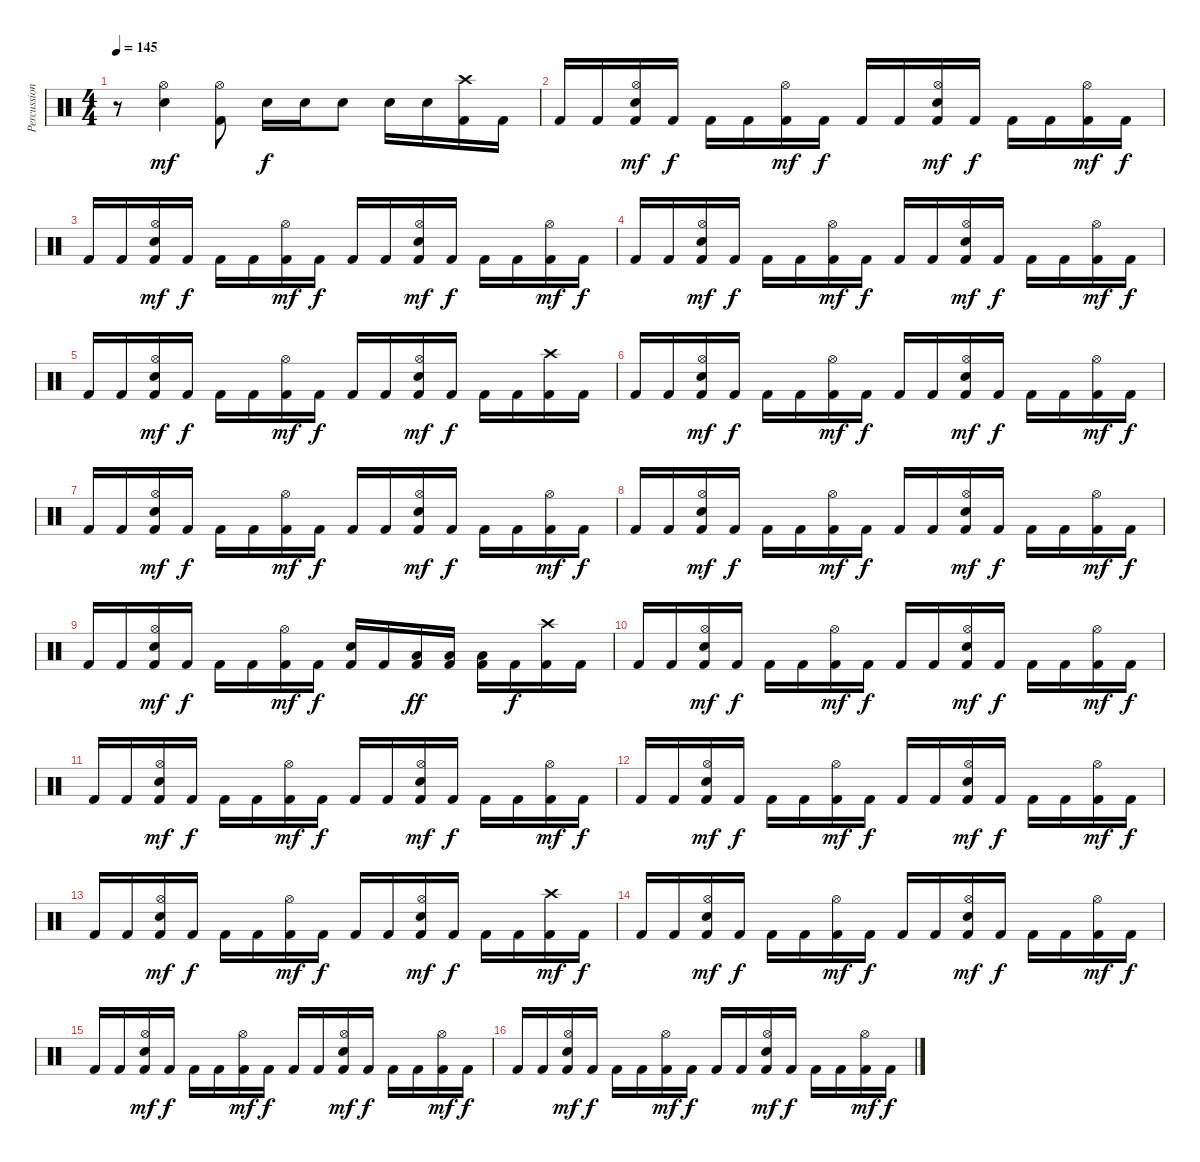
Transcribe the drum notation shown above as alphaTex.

\track ("Percussioni" "Percussion") {instrument percussion}
\staff {score}
\articulation defaults
\ts (4 4)
\tempo 145
\clef neutral
\ks c
r.8{dy mf} ("Snare (hit) 2" "Hi-Hat (open)").4 ("Kick (hit) 2" "Hi-Hat (open)").8 "Snare (hit) 2".16{dy f} "Snare (hit) 2".16 "Snare (hit) 2".8 "Snare (hit) 2".16 "Snare (hit) 2".16 ("Kick (hit) 2" "Crash high (hit)").16 "Kick (hit) 2".16 |
"Kick (hit) 2".16 "Kick (hit) 2".16 ("Kick (hit) 2" "Snare (hit) 2" "Hi-Hat (open)").16{dy mf} "Kick (hit) 2".16{dy f} "Kick (hit) 2".16 "Kick (hit) 2".16 ("Kick (hit) 2" "Hi-Hat (open)").16{dy mf} "Kick (hit) 2".16{dy f} "Kick (hit) 2".16 "Kick (hit) 2".16 ("Kick (hit) 2" "Snare (hit) 2" "Hi-Hat (open)").16{dy mf} "Kick (hit) 2".16{dy f} "Kick (hit) 2".16 "Kick (hit) 2".16 ("Kick (hit) 2" "Hi-Hat (open)").16{dy mf} "Kick (hit) 2".16{dy f} |
"Kick (hit) 2".16 "Kick (hit) 2".16 ("Kick (hit) 2" "Snare (hit) 2" "Hi-Hat (open)").16{dy mf} "Kick (hit) 2".16{dy f} "Kick (hit) 2".16 "Kick (hit) 2".16 ("Kick (hit) 2" "Hi-Hat (open)").16{dy mf} "Kick (hit) 2".16{dy f} "Kick (hit) 2".16 "Kick (hit) 2".16 ("Kick (hit) 2" "Snare (hit) 2" "Hi-Hat (open)").16{dy mf} "Kick (hit) 2".16{dy f} "Kick (hit) 2".16 "Kick (hit) 2".16 ("Kick (hit) 2" "Hi-Hat (open)").16{dy mf} "Kick (hit) 2".16{dy f} |
"Kick (hit) 2".16 "Kick (hit) 2".16 ("Kick (hit) 2" "Snare (hit) 2" "Hi-Hat (open)").16{dy mf} "Kick (hit) 2".16{dy f} "Kick (hit) 2".16 "Kick (hit) 2".16 ("Kick (hit) 2" "Hi-Hat (open)").16{dy mf} "Kick (hit) 2".16{dy f} "Kick (hit) 2".16 "Kick (hit) 2".16 ("Kick (hit) 2" "Snare (hit) 2" "Hi-Hat (open)").16{dy mf} "Kick (hit) 2".16{dy f} "Kick (hit) 2".16 "Kick (hit) 2".16 ("Kick (hit) 2" "Hi-Hat (open)").16{dy mf} "Kick (hit) 2".16{dy f} |
"Kick (hit) 2".16 "Kick (hit) 2".16 ("Kick (hit) 2" "Snare (hit) 2" "Hi-Hat (open)").16{dy mf} "Kick (hit) 2".16{dy f} "Kick (hit) 2".16 "Kick (hit) 2".16 ("Kick (hit) 2" "Hi-Hat (open)").16{dy mf} "Kick (hit) 2".16{dy f} "Kick (hit) 2".16 "Kick (hit) 2".16 ("Kick (hit) 2" "Snare (hit) 2" "Hi-Hat (open)").16{dy mf} "Kick (hit) 2".16{dy f} "Kick (hit) 2".16 "Kick (hit) 2".16 ("Kick (hit) 2" "Crash high (hit)").16 "Kick (hit) 2".16 |
"Kick (hit) 2".16 "Kick (hit) 2".16 ("Kick (hit) 2" "Snare (hit) 2" "Hi-Hat (open)").16{dy mf} "Kick (hit) 2".16{dy f} "Kick (hit) 2".16 "Kick (hit) 2".16 ("Kick (hit) 2" "Hi-Hat (open)").16{dy mf} "Kick (hit) 2".16{dy f} "Kick (hit) 2".16 "Kick (hit) 2".16 ("Kick (hit) 2" "Snare (hit) 2" "Hi-Hat (open)").16{dy mf} "Kick (hit) 2".16{dy f} "Kick (hit) 2".16 "Kick (hit) 2".16 ("Kick (hit) 2" "Hi-Hat (open)").16{dy mf} "Kick (hit) 2".16{dy f} |
"Kick (hit) 2".16 "Kick (hit) 2".16 ("Kick (hit) 2" "Snare (hit) 2" "Hi-Hat (open)").16{dy mf} "Kick (hit) 2".16{dy f} "Kick (hit) 2".16 "Kick (hit) 2".16 ("Kick (hit) 2" "Hi-Hat (open)").16{dy mf} "Kick (hit) 2".16{dy f} "Kick (hit) 2".16 "Kick (hit) 2".16 ("Kick (hit) 2" "Snare (hit) 2" "Hi-Hat (open)").16{dy mf} "Kick (hit) 2".16{dy f} "Kick (hit) 2".16 "Kick (hit) 2".16 ("Kick (hit) 2" "Hi-Hat (open)").16{dy mf} "Kick (hit) 2".16{dy f} |
"Kick (hit) 2".16 "Kick (hit) 2".16 ("Kick (hit) 2" "Snare (hit) 2" "Hi-Hat (open)").16{dy mf} "Kick (hit) 2".16{dy f} "Kick (hit) 2".16 "Kick (hit) 2".16 ("Kick (hit) 2" "Hi-Hat (open)").16{dy mf} "Kick (hit) 2".16{dy f} "Kick (hit) 2".16 "Kick (hit) 2".16 ("Kick (hit) 2" "Snare (hit) 2" "Hi-Hat (open)").16{dy mf} "Kick (hit) 2".16{dy f} "Kick (hit) 2".16 "Kick (hit) 2".16 ("Kick (hit) 2" "Hi-Hat (open)").16{dy mf} "Kick (hit) 2".16{dy f} |
"Kick (hit) 2".16 "Kick (hit) 2".16 ("Kick (hit) 2" "Snare (hit) 2" "Hi-Hat (open)").16{dy mf} "Kick (hit) 2".16{dy f} "Kick (hit) 2".16 "Kick (hit) 2".16 ("Kick (hit) 2" "Hi-Hat (open)").16{dy mf} "Kick (hit) 2".16{dy f} ("Kick (hit) 2" "Snare (hit) 2").16 "Kick (hit) 2".16 ("Kick (hit) 2" "Low Tom (hit)").16{dy ff} ("Kick (hit) 2" "Low Tom (hit)").16 ("Kick (hit) 2" "Low Tom (hit)").16 "Kick (hit) 2".16{dy f} ("Kick (hit) 2" "Crash high (hit)").16 "Kick (hit) 2".16 |
"Kick (hit) 2".16 "Kick (hit) 2".16 ("Kick (hit) 2" "Snare (hit) 2" "Hi-Hat (open)").16{dy mf} "Kick (hit) 2".16{dy f} "Kick (hit) 2".16 "Kick (hit) 2".16 ("Kick (hit) 2" "Hi-Hat (open)").16{dy mf} "Kick (hit) 2".16{dy f} "Kick (hit) 2".16 "Kick (hit) 2".16 ("Kick (hit) 2" "Snare (hit) 2" "Hi-Hat (open)").16{dy mf} "Kick (hit) 2".16{dy f} "Kick (hit) 2".16 "Kick (hit) 2".16 ("Kick (hit) 2" "Hi-Hat (open)").16{dy mf} "Kick (hit) 2".16{dy f} |
"Kick (hit) 2".16 "Kick (hit) 2".16 ("Kick (hit) 2" "Snare (hit) 2" "Hi-Hat (open)").16{dy mf} "Kick (hit) 2".16{dy f} "Kick (hit) 2".16 "Kick (hit) 2".16 ("Kick (hit) 2" "Hi-Hat (open)").16{dy mf} "Kick (hit) 2".16{dy f} "Kick (hit) 2".16 "Kick (hit) 2".16 ("Kick (hit) 2" "Snare (hit) 2" "Hi-Hat (open)").16{dy mf} "Kick (hit) 2".16{dy f} "Kick (hit) 2".16 "Kick (hit) 2".16 ("Kick (hit) 2" "Hi-Hat (open)").16{dy mf} "Kick (hit) 2".16{dy f} |
"Kick (hit) 2".16 "Kick (hit) 2".16 ("Kick (hit) 2" "Snare (hit) 2" "Hi-Hat (open)").16{dy mf} "Kick (hit) 2".16{dy f} "Kick (hit) 2".16 "Kick (hit) 2".16 ("Kick (hit) 2" "Hi-Hat (open)").16{dy mf} "Kick (hit) 2".16{dy f} "Kick (hit) 2".16 "Kick (hit) 2".16 ("Kick (hit) 2" "Snare (hit) 2" "Hi-Hat (open)").16{dy mf} "Kick (hit) 2".16{dy f} "Kick (hit) 2".16 "Kick (hit) 2".16 ("Kick (hit) 2" "Hi-Hat (open)").16{dy mf} "Kick (hit) 2".16{dy f} |
"Kick (hit) 2".16 "Kick (hit) 2".16 ("Kick (hit) 2" "Snare (hit) 2" "Hi-Hat (open)").16{dy mf} "Kick (hit) 2".16{dy f} "Kick (hit) 2".16 "Kick (hit) 2".16 ("Kick (hit) 2" "Hi-Hat (open)").16{dy mf} "Kick (hit) 2".16{dy f} "Kick (hit) 2".16 "Kick (hit) 2".16 ("Kick (hit) 2" "Snare (hit) 2" "Hi-Hat (open)").16{dy mf} "Kick (hit) 2".16{dy f} "Kick (hit) 2".16 "Kick (hit) 2".16 ("Kick (hit) 2" "Crash high (hit)").16{dy mf} "Kick (hit) 2".16{dy f} |
"Kick (hit) 2".16 "Kick (hit) 2".16 ("Kick (hit) 2" "Snare (hit) 2" "Hi-Hat (open)").16{dy mf} "Kick (hit) 2".16{dy f} "Kick (hit) 2".16 "Kick (hit) 2".16 ("Kick (hit) 2" "Hi-Hat (open)").16{dy mf} "Kick (hit) 2".16{dy f} "Kick (hit) 2".16 "Kick (hit) 2".16 ("Kick (hit) 2" "Snare (hit) 2" "Hi-Hat (open)").16{dy mf} "Kick (hit) 2".16{dy f} "Kick (hit) 2".16 "Kick (hit) 2".16 ("Kick (hit) 2" "Hi-Hat (open)").16{dy mf} "Kick (hit) 2".16{dy f} |
"Kick (hit) 2".16 "Kick (hit) 2".16 ("Kick (hit) 2" "Snare (hit) 2" "Hi-Hat (open)").16{dy mf} "Kick (hit) 2".16{dy f} "Kick (hit) 2".16 "Kick (hit) 2".16 ("Kick (hit) 2" "Hi-Hat (open)").16{dy mf} "Kick (hit) 2".16{dy f} "Kick (hit) 2".16 "Kick (hit) 2".16 ("Kick (hit) 2" "Snare (hit) 2" "Hi-Hat (open)").16{dy mf} "Kick (hit) 2".16{dy f} "Kick (hit) 2".16 "Kick (hit) 2".16 ("Kick (hit) 2" "Hi-Hat (open)").16{dy mf} "Kick (hit) 2".16{dy f} |
"Kick (hit) 2".16 "Kick (hit) 2".16 ("Kick (hit) 2" "Snare (hit) 2" "Hi-Hat (open)").16{dy mf} "Kick (hit) 2".16{dy f} "Kick (hit) 2".16 "Kick (hit) 2".16 ("Kick (hit) 2" "Hi-Hat (open)").16{dy mf} "Kick (hit) 2".16{dy f} "Kick (hit) 2".16 "Kick (hit) 2".16 ("Kick (hit) 2" "Snare (hit) 2" "Hi-Hat (open)").16{dy mf} "Kick (hit) 2".16{dy f} "Kick (hit) 2".16 "Kick (hit) 2".16 ("Kick (hit) 2" "Hi-Hat (open)").16{dy mf} "Kick (hit) 2".16{dy f}
